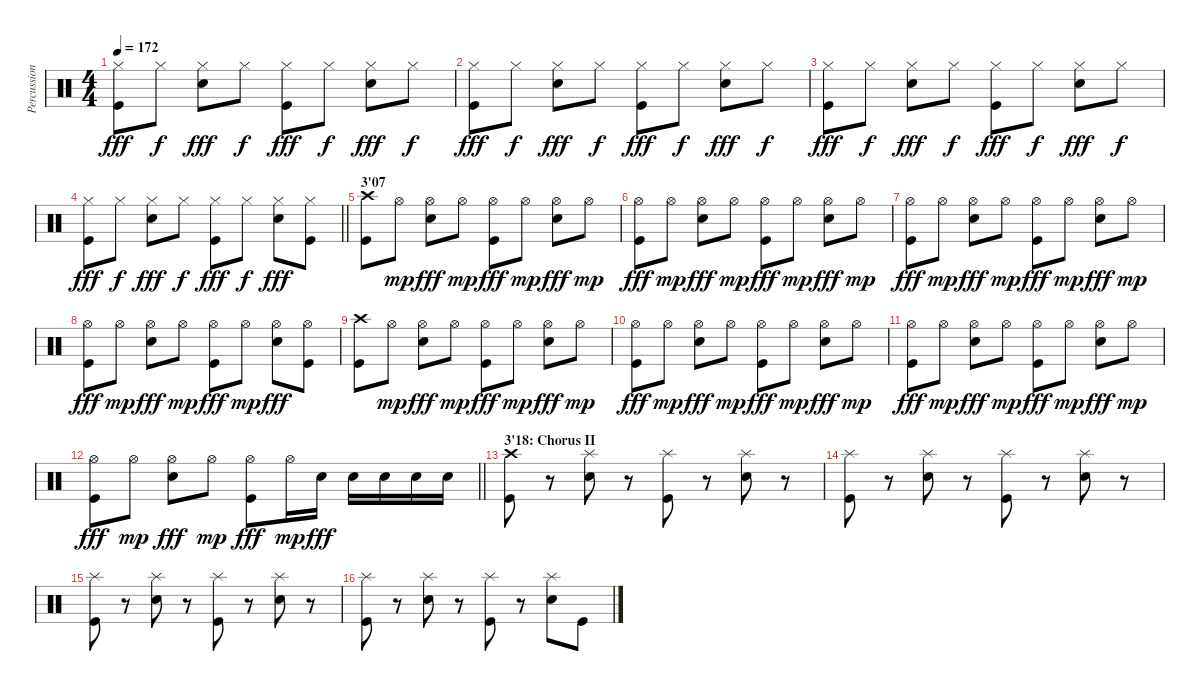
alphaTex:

\track ("Percussions" "Percussion") {instrument percussion}
\staff {score}
\articulation defaults
\ts (4 4)
\tempo 172
\clef neutral
\ks c
("Hi-Hat (closed)" "Kick (hit)").8{dy fff} "Hi-Hat (closed)".8{dy f} ("Hi-Hat (closed)" "Snare (hit) 2").8{dy fff} "Hi-Hat (closed)".8{dy f} ("Hi-Hat (closed)" "Kick (hit)").8{dy fff} "Hi-Hat (closed)".8{dy f} ("Hi-Hat (closed)" "Snare (hit) 2").8{dy fff} "Hi-Hat (closed)".8{dy f} |
("Hi-Hat (closed)" "Kick (hit)").8{dy fff} "Hi-Hat (closed)".8{dy f} ("Hi-Hat (closed)" "Snare (hit) 2").8{dy fff} "Hi-Hat (closed)".8{dy f} ("Hi-Hat (closed)" "Kick (hit)").8{dy fff} "Hi-Hat (closed)".8{dy f} ("Hi-Hat (closed)" "Snare (hit) 2").8{dy fff} "Hi-Hat (closed)".8{dy f} |
("Hi-Hat (closed)" "Kick (hit)").8{dy fff} "Hi-Hat (closed)".8{dy f} ("Hi-Hat (closed)" "Snare (hit) 2").8{dy fff} "Hi-Hat (closed)".8{dy f} ("Hi-Hat (closed)" "Kick (hit)").8{dy fff} "Hi-Hat (closed)".8{dy f} ("Hi-Hat (closed)" "Snare (hit) 2").8{dy fff} "Hi-Hat (closed)".8{dy f} |
\barLineRight lightlight
("Hi-Hat (closed)" "Kick (hit)").8{dy fff} "Hi-Hat (closed)".8{dy f} ("Hi-Hat (closed)" "Snare (hit) 2").8{dy fff} "Hi-Hat (closed)".8{dy f} ("Hi-Hat (closed)" "Kick (hit)").8{dy fff} "Hi-Hat (closed)".8{dy f} ("Hi-Hat (closed)" "Snare (hit) 2").8{dy fff} ("Hi-Hat (closed)" "Kick (hit)").8 |
\section ("" "3'07")
("Crash high (hit)" "Kick (hit)").8 "Hi-Hat (open)".8{dy mp} ("Hi-Hat (open)" "Snare (hit) 2").8{dy fff} "Hi-Hat (open)".8{dy mp} ("Hi-Hat (open)" "Kick (hit)").8{dy fff} "Hi-Hat (open)".8{dy mp} ("Hi-Hat (open)" "Snare (hit) 2").8{dy fff} "Hi-Hat (open)".8{dy mp} |
("Hi-Hat (open)" "Kick (hit)").8{dy fff} "Hi-Hat (open)".8{dy mp} ("Hi-Hat (open)" "Snare (hit) 2").8{dy fff} "Hi-Hat (open)".8{dy mp} ("Hi-Hat (open)" "Kick (hit)").8{dy fff} "Hi-Hat (open)".8{dy mp} ("Hi-Hat (open)" "Snare (hit) 2").8{dy fff} "Hi-Hat (open)".8{dy mp} |
("Hi-Hat (open)" "Kick (hit)").8{dy fff} "Hi-Hat (open)".8{dy mp} ("Hi-Hat (open)" "Snare (hit) 2").8{dy fff} "Hi-Hat (open)".8{dy mp} ("Hi-Hat (open)" "Kick (hit)").8{dy fff} "Hi-Hat (open)".8{dy mp} ("Hi-Hat (open)" "Snare (hit) 2").8{dy fff} "Hi-Hat (open)".8{dy mp} |
("Hi-Hat (open)" "Kick (hit)").8{dy fff} "Hi-Hat (open)".8{dy mp} ("Hi-Hat (open)" "Snare (hit) 2").8{dy fff} "Hi-Hat (open)".8{dy mp} ("Hi-Hat (open)" "Kick (hit)").8{dy fff} "Hi-Hat (open)".8{dy mp} ("Hi-Hat (open)" "Snare (hit) 2").8{dy fff} ("Hi-Hat (open)" "Kick (hit)").8 |
("Crash high (hit)" "Kick (hit)").8 "Hi-Hat (open)".8{dy mp} ("Hi-Hat (open)" "Snare (hit) 2").8{dy fff} "Hi-Hat (open)".8{dy mp} ("Hi-Hat (open)" "Kick (hit)").8{dy fff} "Hi-Hat (open)".8{dy mp} ("Hi-Hat (open)" "Snare (hit) 2").8{dy fff} "Hi-Hat (open)".8{dy mp} |
("Hi-Hat (open)" "Kick (hit)").8{dy fff} "Hi-Hat (open)".8{dy mp} ("Hi-Hat (open)" "Snare (hit) 2").8{dy fff} "Hi-Hat (open)".8{dy mp} ("Hi-Hat (open)" "Kick (hit)").8{dy fff} "Hi-Hat (open)".8{dy mp} ("Hi-Hat (open)" "Snare (hit) 2").8{dy fff} "Hi-Hat (open)".8{dy mp} |
("Hi-Hat (open)" "Kick (hit)").8{dy fff} "Hi-Hat (open)".8{dy mp} ("Hi-Hat (open)" "Snare (hit) 2").8{dy fff} "Hi-Hat (open)".8{dy mp} ("Hi-Hat (open)" "Kick (hit)").8{dy fff} "Hi-Hat (open)".8{dy mp} ("Hi-Hat (open)" "Snare (hit) 2").8{dy fff} "Hi-Hat (open)".8{dy mp} |
\barLineRight lightlight
("Hi-Hat (open)" "Kick (hit)").8{dy fff} "Hi-Hat (open)".8{dy mp} ("Hi-Hat (open)" "Snare (hit) 2").8{dy fff} "Hi-Hat (open)".8{dy mp} ("Hi-Hat (open)" "Kick (hit)").8{dy fff} "Hi-Hat (open)".16{dy mp} "Snare (hit) 2".16{dy fff} "Snare (hit) 2".16 "Snare (hit) 2".16 "Snare (hit) 2".16 "Snare (hit) 2".16 |
\section ("" "3'18: Chorus II")
("Crash high (hit)" "Kick (hit)").8 r.8 ("Splash (hit)" "Snare (hit) 2").8 r.8 ("Splash (hit)" "Kick (hit)").8 r.8 ("Splash (hit)" "Snare (hit) 2").8 r.8 |
("Splash (hit)" "Kick (hit)").8 r.8 ("Splash (hit)" "Snare (hit) 2").8 r.8 ("Splash (hit)" "Kick (hit)").8 r.8 ("Splash (hit)" "Snare (hit) 2").8 r.8 |
("Splash (hit)" "Kick (hit)").8 r.8 ("Splash (hit)" "Snare (hit) 2").8 r.8 ("Splash (hit)" "Kick (hit)").8 r.8 ("Splash (hit)" "Snare (hit) 2").8 r.8 |
("Splash (hit)" "Kick (hit)").8 r.8 ("Splash (hit)" "Snare (hit) 2").8 r.8 ("Splash (hit)" "Kick (hit)").8 r.8 ("Splash (hit)" "Snare (hit) 2").8 "Kick (hit)".8
